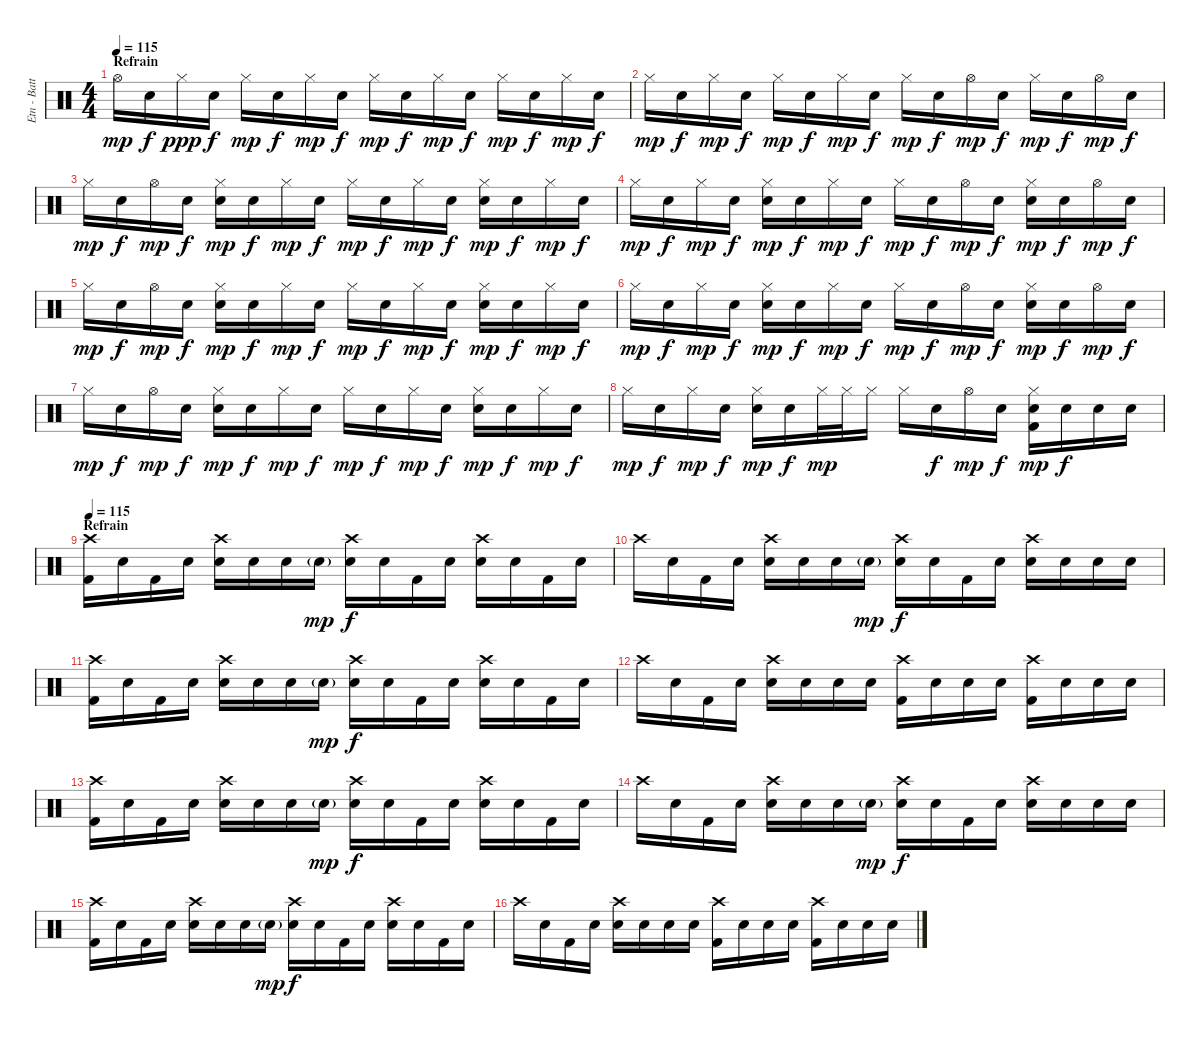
\track ("Etn - Batterie" "Etn - Batt") {instrument percussion}
\staff {score}
\articulation defaults
\ts (4 4)
\section ("" "Refrain")
\tempo 115
\clef neutral
\ks c "Hi-Hat (open)".16{dy mp volume 16 balance 8} "Snare (hit)".16{dy f} "Hi-Hat (closed)".16{dy ppp} "Snare (hit)".16{dy f} "Hi-Hat (closed)".16{dy mp} "Snare (hit)".16{dy f} "Hi-Hat (closed)".16{dy mp} "Snare (hit)".16{dy f} "Hi-Hat (closed)".16{dy mp} "Snare (hit)".16{dy f} "Hi-Hat (closed)".16{dy mp} "Snare (hit)".16{dy f} "Hi-Hat (closed)".16{dy mp} "Snare (hit)".16{dy f} "Hi-Hat (closed)".16{dy mp} "Snare (hit)".16{dy f}
|
"Hi-Hat (closed)".16{dy mp} "Snare (hit)".16{dy f} "Hi-Hat (closed)".16{dy mp} "Snare (hit)".16{dy f} "Hi-Hat (closed)".16{dy mp} "Snare (hit)".16{dy f} "Hi-Hat (closed)".16{dy mp} "Snare (hit)".16{dy f} "Hi-Hat (closed)".16{dy mp} "Snare (hit)".16{dy f} "Hi-Hat (open)".16{dy mp} "Snare (hit)".16{dy f} "Hi-Hat (closed)".16{dy mp} "Snare (hit)".16{dy f} "Hi-Hat (open)".16{dy mp} "Snare (hit)".16{dy f} |
"Hi-Hat (closed)".16{dy mp} "Snare (hit)".16{dy f} "Hi-Hat (open)".16{dy mp} "Snare (hit)".16{dy f} ("Hi-Hat (closed)" "Electric Snare (hit)").16{dy mp} "Snare (hit)".16{dy f} "Hi-Hat (closed)".16{dy mp} "Snare (hit)".16{dy f} "Hi-Hat (closed)".16{dy mp} "Snare (hit)".16{dy f} "Hi-Hat (closed)".16{dy mp} "Snare (hit)".16{dy f} ("Hi-Hat (closed)" "Electric Snare (hit)").16{dy mp} "Snare (hit)".16{dy f} "Hi-Hat (closed)".16{dy mp} "Snare (hit)".16{dy f} |
"Hi-Hat (closed)".16{dy mp} "Snare (hit)".16{dy f} "Hi-Hat (closed)".16{dy mp} "Snare (hit)".16{dy f} ("Hi-Hat (closed)" "Electric Snare (hit)").16{dy mp} "Snare (hit)".16{dy f} "Hi-Hat (closed)".16{dy mp} "Snare (hit)".16{dy f} "Hi-Hat (closed)".16{dy mp} "Snare (hit)".16{dy f} "Hi-Hat (open)".16{dy mp} "Snare (hit)".16{dy f} ("Hi-Hat (closed)" "Electric Snare (hit)").16{dy mp} "Snare (hit)".16{dy f} "Hi-Hat (open)".16{dy mp} "Snare (hit)".16{dy f} |
"Hi-Hat (closed)".16{dy mp} "Snare (hit)".16{dy f} "Hi-Hat (open)".16{dy mp} "Snare (hit)".16{dy f} ("Hi-Hat (closed)" "Electric Snare (hit)").16{dy mp} "Snare (hit)".16{dy f} "Hi-Hat (closed)".16{dy mp} "Snare (hit)".16{dy f} "Hi-Hat (closed)".16{dy mp} "Snare (hit)".16{dy f} "Hi-Hat (closed)".16{dy mp} "Snare (hit)".16{dy f} ("Hi-Hat (closed)" "Electric Snare (hit)").16{dy mp} "Snare (hit)".16{dy f} "Hi-Hat (closed)".16{dy mp} "Snare (hit)".16{dy f} |
"Hi-Hat (closed)".16{dy mp} "Snare (hit)".16{dy f} "Hi-Hat (closed)".16{dy mp} "Snare (hit)".16{dy f} ("Hi-Hat (closed)" "Electric Snare (hit)").16{dy mp} "Snare (hit)".16{dy f} "Hi-Hat (closed)".16{dy mp} "Snare (hit)".16{dy f} "Hi-Hat (closed)".16{dy mp} "Snare (hit)".16{dy f} "Hi-Hat (open)".16{dy mp} "Snare (hit)".16{dy f} ("Hi-Hat (closed)" "Electric Snare (hit)").16{dy mp} "Snare (hit)".16{dy f} "Hi-Hat (open)".16{dy mp} "Snare (hit)".16{dy f} |
"Hi-Hat (closed)".16{dy mp} "Snare (hit)".16{dy f} "Hi-Hat (open)".16{dy mp} "Snare (hit)".16{dy f} ("Hi-Hat (closed)" "Electric Snare (hit)").16{dy mp} "Snare (hit)".16{dy f} "Hi-Hat (closed)".16{dy mp} "Snare (hit)".16{dy f} "Hi-Hat (closed)".16{dy mp} "Snare (hit)".16{dy f} "Hi-Hat (closed)".16{dy mp} "Snare (hit)".16{dy f} ("Hi-Hat (closed)" "Electric Snare (hit)").16{dy mp} "Snare (hit)".16{dy f} "Hi-Hat (closed)".16{dy mp} "Snare (hit)".16{dy f} |
"Hi-Hat (closed)".16{dy mp} "Snare (hit)".16{dy f} "Hi-Hat (closed)".16{dy mp} "Snare (hit)".16{dy f} ("Hi-Hat (closed)" "Electric Snare (hit)").16{dy mp} "Snare (hit)".16{dy f} "Hi-Hat (closed)".32{dy mp} "Hi-Hat (closed)".32 "Hi-Hat (closed)".16 "Hi-Hat (closed)".16 "Snare (hit)".16{dy f} "Hi-Hat (open)".16{dy mp} "Snare (hit)".16{dy f} ("Hi-Hat (closed)" "Electric Snare (hit)" "Kick (hit) 2").16{dy mp} "Snare (hit)".16{dy f} "Snare (hit)".16 "Snare (hit)".16 |
\section ("" "Refrain")
\tempo 115
("Crash high (hit)" "Kick (hit) 2").16{volume 16 balance 8} "Snare (hit)".16 "Kick (hit) 2".16 "Snare (hit)".16 ("Crash high (hit)" "Electric Snare (hit)").16 "Snare (hit)".16 "Snare (hit)".16 "Electric Snare (hit)"{g}.16{dy mp} ("Crash high (hit)" "Electric Snare (hit)").16{dy f} "Snare (hit)".16 "Kick (hit) 2".16 "Snare (hit)".16 ("Crash high (hit)" "Electric Snare (hit)").16 "Snare (hit)".16 "Kick (hit) 2".16 "Snare (hit)".16 |
"Crash high (hit)".16 "Snare (hit)".16 "Kick (hit) 2".16 "Snare (hit)".16 ("Crash high (hit)" "Electric Snare (hit)").16 "Snare (hit)".16 "Snare (hit)".16 "Electric Snare (hit)"{g}.16{dy mp} ("Crash high (hit)" "Electric Snare (hit)").16{dy f} "Snare (hit)".16 "Kick (hit) 2".16 "Snare (hit)".16 ("Crash high (hit)" "Electric Snare (hit)").16 "Snare (hit)".16 "Electric Snare (hit)".16 "Electric Snare (hit)".16 |
("Crash high (hit)" "Kick (hit) 2").16 "Snare (hit)".16 "Kick (hit) 2".16 "Snare (hit)".16 ("Crash high (hit)" "Electric Snare (hit)").16 "Snare (hit)".16 "Snare (hit)".16 "Electric Snare (hit)"{g}.16{dy mp} ("Crash high (hit)" "Electric Snare (hit)").16{dy f} "Snare (hit)".16 "Kick (hit) 2".16 "Snare (hit)".16 ("Crash high (hit)" "Electric Snare (hit)").16 "Snare (hit)".16 "Kick (hit) 2".16 "Snare (hit)".16 |
"Crash high (hit)".16 "Snare (hit)".16 "Kick (hit) 2".16 "Snare (hit)".16 ("Crash high (hit)" "Electric Snare (hit)").16 "Snare (hit)".16 "Snare (hit)".16 "Snare (hit)".16 ("Crash high (hit)" "Kick (hit) 2").16 "Snare (hit)".16 "Electric Snare (hit)".16 "Snare (hit)".16 ("Crash high (hit)" "Kick (hit) 2").16 "Snare (hit)".16 "Electric Snare (hit)".16 "Snare (hit)".16 |
("Crash high (hit)" "Kick (hit) 2").16 "Snare (hit)".16 "Kick (hit) 2".16 "Snare (hit)".16 ("Crash high (hit)" "Electric Snare (hit)").16 "Snare (hit)".16 "Snare (hit)".16 "Electric Snare (hit)"{g}.16{dy mp} ("Crash high (hit)" "Electric Snare (hit)").16{dy f} "Snare (hit)".16 "Kick (hit) 2".16 "Snare (hit)".16 ("Crash high (hit)" "Electric Snare (hit)").16 "Snare (hit)".16 "Kick (hit) 2".16 "Snare (hit)".16 |
"Crash high (hit)".16 "Snare (hit)".16 "Kick (hit) 2".16 "Snare (hit)".16 ("Crash high (hit)" "Electric Snare (hit)").16 "Snare (hit)".16 "Snare (hit)".16 "Electric Snare (hit)"{g}.16{dy mp} ("Crash high (hit)" "Electric Snare (hit)").16{dy f} "Snare (hit)".16 "Kick (hit) 2".16 "Snare (hit)".16 ("Crash high (hit)" "Electric Snare (hit)").16 "Snare (hit)".16 "Electric Snare (hit)".16 "Electric Snare (hit)".16 |
("Crash high (hit)" "Kick (hit) 2").16 "Snare (hit)".16 "Kick (hit) 2".16 "Snare (hit)".16 ("Crash high (hit)" "Electric Snare (hit)").16 "Snare (hit)".16 "Snare (hit)".16 "Electric Snare (hit)"{g}.16{dy mp} ("Crash high (hit)" "Electric Snare (hit)").16{dy f} "Snare (hit)".16 "Kick (hit) 2".16 "Snare (hit)".16 ("Crash high (hit)" "Electric Snare (hit)").16 "Snare (hit)".16 "Kick (hit) 2".16 "Snare (hit)".16 |
"Crash high (hit)".16 "Snare (hit)".16 "Kick (hit) 2".16 "Snare (hit)".16 ("Crash high (hit)" "Electric Snare (hit)").16 "Snare (hit)".16 "Snare (hit)".16 "Snare (hit)".16 ("Crash high (hit)" "Kick (hit) 2").16 "Snare (hit)".16 "Electric Snare (hit)".16 "Snare (hit)".16 ("Crash high (hit)" "Kick (hit) 2").16 "Snare (hit)".16 "Electric Snare (hit)".16 "Snare (hit)".16
